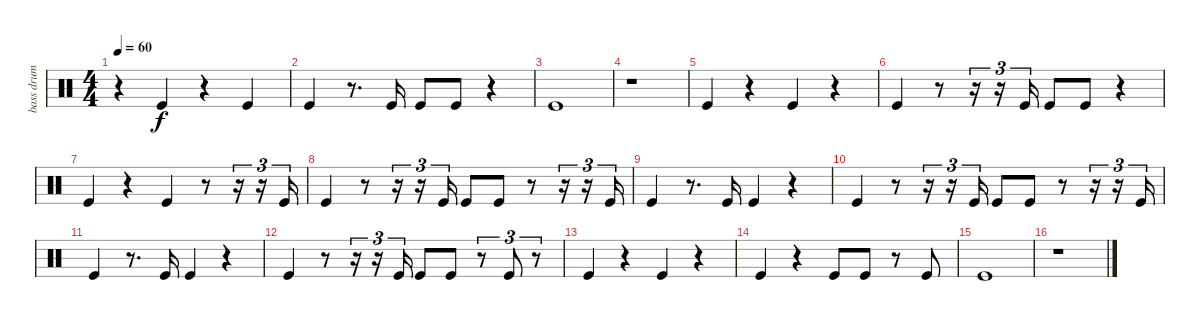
\track ("bass drum" "bass drum") {instrument percussion}
\staff {score}
\articulation defaults
\ts (4 4)
\tempo 60
\clef neutral
\ks c
r.4{dy f} "Kick (hit)".4 r.4 "Kick (hit)".4 |
"Kick (hit)".4 r.8{d} "Kick (hit)".16 "Kick (hit)".8 "Kick (hit)".8 r.4 |
"Kick (hit)".1 |
r.1 |
"Kick (hit)".4 r.4 "Kick (hit)".4 r.4 |
"Kick (hit)".4 r.8 r.16{tu (3 2)} r.16{tu (3 2)} "Kick (hit)".16{tu (3 2)} "Kick (hit)".8 "Kick (hit)".8 r.4 |
"Kick (hit)".4 r.4 "Kick (hit)".4 r.8 r.16{tu (3 2)} r.16{tu (3 2)} "Kick (hit)".16{tu (3 2)} |
"Kick (hit)".4 r.8 r.16{tu (3 2)} r.16{tu (3 2)} "Kick (hit)".16{tu (3 2)} "Kick (hit)".8 "Kick (hit)".8 r.8 r.16{tu (3 2)} r.16{tu (3 2)} "Kick (hit)".16{tu (3 2)} |
"Kick (hit)".4 r.8{d} "Kick (hit)".16 "Kick (hit)".4 r.4 |
"Kick (hit)".4 r.8 r.16{tu (3 2)} r.16{tu (3 2)} "Kick (hit)".16{tu (3 2)} "Kick (hit)".8 "Kick (hit)".8 r.8 r.16{tu (3 2)} r.16{tu (3 2)} "Kick (hit)".16{tu (3 2)} |
"Kick (hit)".4 r.8{d} "Kick (hit)".16 "Kick (hit)".4 r.4 |
"Kick (hit)".4 r.8 r.16{tu (3 2)} r.16{tu (3 2)} "Kick (hit)".16{tu (3 2)} "Kick (hit)".8 "Kick (hit)".8 r.8{tu (3 2)} "Kick (hit)".8{tu (3 2)} r.8{tu (3 2)} |
"Kick (hit)".4 r.4 "Kick (hit)".4 r.4 |
"Kick (hit)".4 r.4 "Kick (hit)".8 "Kick (hit)".8 r.8 "Kick (hit)".8 |
"Kick (hit)".1 |
r.1
